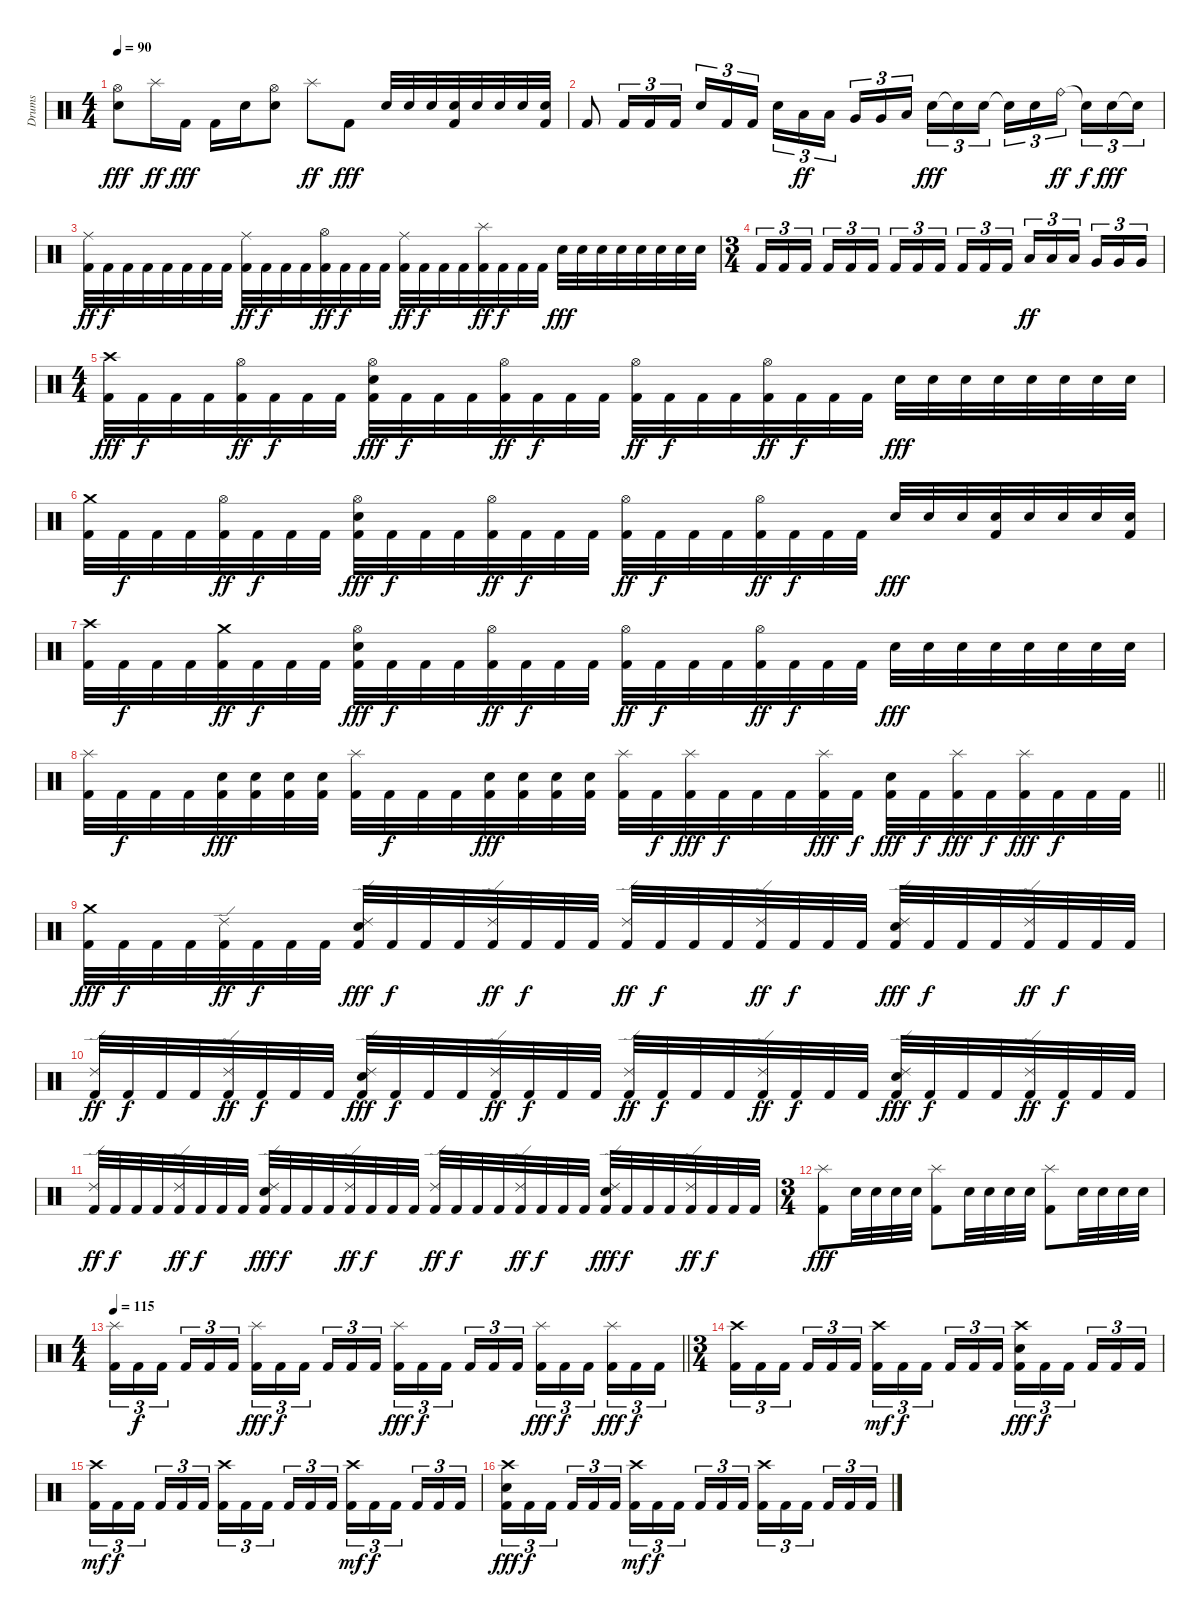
\track ("Drums" "Drums") {instrument percussion}
\staff {score}
\articulation defaults
\ts (4 4)
\tempo 90
\clef neutral
\ks c
("Hi-Hat (open)" "Snare (hit) 2").8{dy fff} "Splash (hit)".16{dy ff} "Kick (hit) 2".16{dy fff} "Kick (hit) 2".16 "Snare (hit) 2".16 ("Hi-Hat (open)" "Snare (hit) 2").8 "Splash (hit)".8{dy ff} "Kick (hit) 2".8{dy fff} "Snare (hit) 2".32 "Snare (hit) 2".32 "Snare (hit) 2".32 ("Snare (hit) 2" "Kick (hit) 2").32 "Snare (hit) 2".32 "Snare (hit) 2".32 "Snare (hit) 2".32 ("Snare (hit) 2" "Kick (hit) 2").32 |
"Kick (hit) 2".8 "Kick (hit) 2".16{tu (3 2)} "Kick (hit) 2".16{tu (3 2)} "Kick (hit) 2".16{tu (3 2)} "Snare (hit) 2".16{tu (3 2)} "Kick (hit) 2".16{tu (3 2)} "Kick (hit) 2".16{tu (3 2) beam splitsecondary} "Snare (hit) 2".16{tu (3 2)} "Low Tom (hit)".16{tu (3 2) dy ff} "Low Tom (hit)".16{tu (3 2)} "Very Low Tom (hit)".16{tu (3 2)} "Very Low Tom (hit)".16{tu (3 2)} "Low Floor Tom (hit)".16{tu (3 2) beam splitsecondary} "Snare (hit) 2".16{tu (3 2) dy fff} "Snare (hit)"{t}.16{tu (3 2)} "Snare (hit) 2".16{tu (3 2)} "Snare (hit)"{t}.16{tu (3 2)} "Snare (hit) 2".16{tu (3 2)} "Ride (bell)".16{tu (3 2) dy ff beam splitsecondary} "Snare (hit)"{t}.16{tu (3 2) dy f} "Snare (hit) 2".16{tu (3 2) dy fff} "Snare (hit)"{t}.16{tu (3 2)} |
("Ride (middle)" "Kick (hit) 2").32{dy ff} "Kick (hit) 2".32{dy f} "Kick (hit) 2".32 "Kick (hit) 2".32 "Kick (hit) 2".32 "Kick (hit) 2".32 "Kick (hit) 2".32 "Kick (hit) 2".32 ("Ride (middle)" "Kick (hit) 2").32{dy ff} "Kick (hit) 2".32{dy f} "Kick (hit) 2".32 "Kick (hit) 2".32 ("Hi-Hat (open)" "Kick (hit) 2").32{dy ff} "Kick (hit) 2".32{dy f} "Kick (hit) 2".32 "Kick (hit) 2".32 ("Ride (middle)" "Kick (hit) 2").32{dy ff} "Kick (hit) 2".32{dy f} "Kick (hit) 2".32 "Kick (hit) 2".32 ("Splash (hit)" "Kick (hit) 2").32{dy ff} "Kick (hit) 2".32{dy f} "Kick (hit) 2".32 "Kick (hit) 2".32 "Snare (hit) 2".32{dy fff} "Snare (hit) 2".32 "Snare (hit) 2".32 "Snare (hit) 2".32 "Snare (hit) 2".32 "Snare (hit) 2".32 "Snare (hit) 2".32 "Snare (hit) 2".32 |
\ts (3 4)
"Kick (hit) 2".16{tu (3 2)} "Kick (hit) 2".16{tu (3 2)} "Kick (hit) 2".16{tu (3 2) beam splitsecondary} "Kick (hit) 2".16{tu (3 2)} "Kick (hit) 2".16{tu (3 2)} "Kick (hit) 2".16{tu (3 2)} "Kick (hit) 2".16{tu (3 2)} "Kick (hit) 2".16{tu (3 2)} "Kick (hit) 2".16{tu (3 2) beam splitsecondary} "Kick (hit) 2".16{tu (3 2)} "Kick (hit) 2".16{tu (3 2)} "Kick (hit) 2".16{tu (3 2)} "Low Floor Tom (hit)".16{tu (3 2) dy ff} "Low Floor Tom (hit)".16{tu (3 2)} "Low Floor Tom (hit)".16{tu (3 2) beam splitsecondary} "Very Low Tom (hit)".16{tu (3 2)} "Very Low Tom (hit)".16{tu (3 2)} "Very Low Tom (hit)".16{tu (3 2)} |
\ts (4 4)
("Crash high (hit)" "Kick (hit) 2").32{dy fff} "Kick (hit) 2".32{dy f} "Kick (hit) 2".32 "Kick (hit) 2".32 ("Hi-Hat (open)" "Kick (hit) 2").32{dy ff} "Kick (hit) 2".32{dy f} "Kick (hit) 2".32 "Kick (hit) 2".32 ("Hi-Hat (open)" "Snare (hit) 2" "Kick (hit) 2").32{dy fff} "Kick (hit) 2".32{dy f} "Kick (hit) 2".32 "Kick (hit) 2".32 ("Hi-Hat (open)" "Kick (hit) 2").32{dy ff} "Kick (hit) 2".32{dy f} "Kick (hit) 2".32 "Kick (hit) 2".32 ("Hi-Hat (open)" "Kick (hit) 2").32{dy ff} "Kick (hit) 2".32{dy f} "Kick (hit) 2".32 "Kick (hit) 2".32 ("Hi-Hat (open)" "Kick (hit) 2").32{dy ff} "Kick (hit) 2".32{dy f} "Kick (hit) 2".32 "Kick (hit) 2".32 "Snare (hit) 2".32{dy fff} "Snare (hit) 2".32 "Snare (hit) 2".32 "Snare (hit) 2".32 "Snare (hit) 2".32 "Snare (hit) 2".32 "Snare (hit) 2".32 "Snare (hit) 2".32 |
("Crash medium (hit)" "Kick (hit) 2").32 "Kick (hit) 2".32{dy f} "Kick (hit) 2".32 "Kick (hit) 2".32 ("Hi-Hat (open)" "Kick (hit) 2").32{dy ff} "Kick (hit) 2".32{dy f} "Kick (hit) 2".32 "Kick (hit) 2".32 ("Hi-Hat (open)" "Snare (hit) 2" "Kick (hit) 2").32{dy fff} "Kick (hit) 2".32{dy f} "Kick (hit) 2".32 "Kick (hit) 2".32 ("Hi-Hat (open)" "Kick (hit) 2").32{dy ff} "Kick (hit) 2".32{dy f} "Kick (hit) 2".32 "Kick (hit) 2".32 ("Hi-Hat (open)" "Kick (hit) 2").32{dy ff} "Kick (hit) 2".32{dy f} "Kick (hit) 2".32 "Kick (hit) 2".32 ("Hi-Hat (open)" "Kick (hit) 2").32{dy ff} "Kick (hit) 2".32{dy f} "Kick (hit) 2".32 "Kick (hit) 2".32 "Snare (hit) 2".32{dy fff} "Snare (hit) 2".32 "Snare (hit) 2".32 ("Snare (hit) 2" "Kick (hit) 2").32 "Snare (hit) 2".32 "Snare (hit) 2".32 "Snare (hit) 2".32 ("Snare (hit) 2" "Kick (hit) 2").32 |
("Crash high (hit)" "Kick (hit) 2").32 "Kick (hit) 2".32{dy f} "Kick (hit) 2".32 "Kick (hit) 2".32 ("Crash medium (hit)" "Kick (hit) 2").32{dy ff} "Kick (hit) 2".32{dy f} "Kick (hit) 2".32 "Kick (hit) 2".32 ("Hi-Hat (open)" "Snare (hit) 2" "Kick (hit) 2").32{dy fff} "Kick (hit) 2".32{dy f} "Kick (hit) 2".32 "Kick (hit) 2".32 ("Hi-Hat (open)" "Kick (hit) 2").32{dy ff} "Kick (hit) 2".32{dy f} "Kick (hit) 2".32 "Kick (hit) 2".32 ("Hi-Hat (open)" "Kick (hit) 2").32{dy ff} "Kick (hit) 2".32{dy f} "Kick (hit) 2".32 "Kick (hit) 2".32 ("Hi-Hat (open)" "Kick (hit) 2").32{dy ff} "Kick (hit) 2".32{dy f} "Kick (hit) 2".32 "Kick (hit) 2".32 "Snare (hit) 2".32{dy fff} "Snare (hit) 2".32 "Snare (hit) 2".32 "Snare (hit) 2".32 "Snare (hit) 2".32 "Snare (hit) 2".32 "Snare (hit) 2".32 "Snare (hit) 2".32 |
\barLineRight lightlight
("Splash (hit)" "Kick (hit) 2").32 "Kick (hit) 2".32{dy f} "Kick (hit) 2".32 "Kick (hit) 2".32 ("Snare (hit) 2" "Kick (hit) 2").32{dy fff} ("Snare (hit) 2" "Kick (hit) 2").32 ("Snare (hit) 2" "Kick (hit) 2").32 ("Snare (hit) 2" "Kick (hit) 2").32 ("Splash (hit)" "Kick (hit) 2").32 "Kick (hit) 2".32{dy f} "Kick (hit) 2".32 "Kick (hit) 2".32 ("Snare (hit) 2" "Kick (hit) 2").32{dy fff} ("Snare (hit) 2" "Kick (hit) 2").32 ("Snare (hit) 2" "Kick (hit) 2").32 ("Snare (hit) 2" "Kick (hit) 2").32 ("Splash (hit)" "Kick (hit) 2").32 "Kick (hit) 2".32{dy f} ("Splash (hit)" "Kick (hit) 2").32{dy fff} "Kick (hit) 2".32{dy f} "Kick (hit) 2".32 "Kick (hit) 2".32 ("Splash (hit)" "Kick (hit) 2").32{dy fff} "Kick (hit) 2".32{dy f} ("Snare (hit) 2" "Kick (hit) 2").32{dy fff} "Kick (hit) 2".32{dy f} ("Splash (hit)" "Kick (hit) 2").32{dy fff} "Kick (hit) 2".32{dy f} ("Splash (hit)" "Kick (hit) 2").32{dy fff} "Kick (hit) 2".32{dy f} "Kick (hit) 2".32 "Kick (hit) 2".32 |
("Crash medium (hit)" "Kick (hit) 2").32{dy fff} "Kick (hit) 2".32{dy f} "Kick (hit) 2".32 "Kick (hit) 2".32 ("Ride (edge) 2" "Kick (hit) 2").32{dy ff} "Kick (hit) 2".32{dy f} "Kick (hit) 2".32 "Kick (hit) 2".32 ("Ride (edge) 2" "Snare (hit) 2" "Kick (hit) 2").32{dy fff} "Kick (hit) 2".32{dy f} "Kick (hit) 2".32 "Kick (hit) 2".32 ("Ride (edge) 2" "Kick (hit) 2").32{dy ff} "Kick (hit) 2".32{dy f} "Kick (hit) 2".32 "Kick (hit) 2".32 ("Ride (edge) 2" "Kick (hit) 2").32{dy ff} "Kick (hit) 2".32{dy f} "Kick (hit) 2".32 "Kick (hit) 2".32 ("Ride (edge) 2" "Kick (hit) 2").32{dy ff} "Kick (hit) 2".32{dy f} "Kick (hit) 2".32 "Kick (hit) 2".32 ("Ride (edge) 2" "Snare (hit) 2" "Kick (hit) 2").32{dy fff} "Kick (hit) 2".32{dy f} "Kick (hit) 2".32 "Kick (hit) 2".32 ("Ride (edge) 2" "Kick (hit) 2").32{dy ff} "Kick (hit) 2".32{dy f} "Kick (hit) 2".32 "Kick (hit) 2".32 |
("Ride (edge) 2" "Kick (hit) 2").32{dy ff} "Kick (hit) 2".32{dy f} "Kick (hit) 2".32 "Kick (hit) 2".32 ("Ride (edge) 2" "Kick (hit) 2").32{dy ff} "Kick (hit) 2".32{dy f} "Kick (hit) 2".32 "Kick (hit) 2".32 ("Ride (edge) 2" "Snare (hit) 2" "Kick (hit) 2").32{dy fff} "Kick (hit) 2".32{dy f} "Kick (hit) 2".32 "Kick (hit) 2".32 ("Ride (edge) 2" "Kick (hit) 2").32{dy ff} "Kick (hit) 2".32{dy f} "Kick (hit) 2".32 "Kick (hit) 2".32 ("Ride (edge) 2" "Kick (hit) 2").32{dy ff} "Kick (hit) 2".32{dy f} "Kick (hit) 2".32 "Kick (hit) 2".32 ("Ride (edge) 2" "Kick (hit) 2").32{dy ff} "Kick (hit) 2".32{dy f} "Kick (hit) 2".32 "Kick (hit) 2".32 ("Ride (edge) 2" "Snare (hit) 2" "Kick (hit) 2").32{dy fff} "Kick (hit) 2".32{dy f} "Kick (hit) 2".32 "Kick (hit) 2".32 ("Ride (edge) 2" "Kick (hit) 2").32{dy ff} "Kick (hit) 2".32{dy f} "Kick (hit) 2".32 "Kick (hit) 2".32 |
("Ride (edge) 2" "Kick (hit) 2").32{dy ff} "Kick (hit) 2".32{dy f} "Kick (hit) 2".32 "Kick (hit) 2".32 ("Ride (edge) 2" "Kick (hit) 2").32{dy ff} "Kick (hit) 2".32{dy f} "Kick (hit) 2".32 "Kick (hit) 2".32 ("Ride (edge) 2" "Snare (hit) 2" "Kick (hit) 2").32{dy fff} "Kick (hit) 2".32{dy f} "Kick (hit) 2".32 "Kick (hit) 2".32 ("Ride (edge) 2" "Kick (hit) 2").32{dy ff} "Kick (hit) 2".32{dy f} "Kick (hit) 2".32 "Kick (hit) 2".32 ("Ride (edge) 2" "Kick (hit) 2").32{dy ff} "Kick (hit) 2".32{dy f} "Kick (hit) 2".32 "Kick (hit) 2".32 ("Ride (edge) 2" "Kick (hit) 2").32{dy ff} "Kick (hit) 2".32{dy f} "Kick (hit) 2".32 "Kick (hit) 2".32 ("Ride (edge) 2" "Snare (hit) 2" "Kick (hit) 2").32{dy fff} "Kick (hit) 2".32{dy f} "Kick (hit) 2".32 "Kick (hit) 2".32 ("Ride (edge) 2" "Kick (hit) 2").32{dy ff} "Kick (hit) 2".32{dy f} "Kick (hit) 2".32 "Kick (hit) 2".32 |
\ts (3 4)
("Splash (hit)" "Kick (hit) 2").8{dy fff} "Snare (hit) 2".32 "Snare (hit) 2".32 "Snare (hit) 2".32 "Snare (hit) 2".32 ("Splash (hit)" "Kick (hit) 2").8 "Snare (hit) 2".32 "Snare (hit) 2".32 "Snare (hit) 2".32 "Snare (hit) 2".32 ("Splash (hit)" "Kick (hit) 2").8 "Snare (hit) 2".32 "Snare (hit) 2".32 "Snare (hit) 2".32 "Snare (hit) 2".32 |
\ts (4 4)
\tempo 115
\barLineRight lightlight
("Splash (hit)" "Kick (hit) 2").16{tu (3 2)} "Kick (hit) 2".16{tu (3 2) dy f} "Kick (hit) 2".16{tu (3 2) beam splitsecondary} "Kick (hit) 2".16{tu (3 2)} "Kick (hit) 2".16{tu (3 2)} "Kick (hit) 2".16{tu (3 2)} ("Splash (hit)" "Kick (hit) 2").16{tu (3 2) dy fff} "Kick (hit) 2".16{tu (3 2) dy f} "Kick (hit) 2".16{tu (3 2) beam splitsecondary} "Kick (hit) 2".16{tu (3 2)} "Kick (hit) 2".16{tu (3 2)} "Kick (hit) 2".16{tu (3 2)} ("Splash (hit)" "Kick (hit) 2").16{tu (3 2) dy fff} "Kick (hit) 2".16{tu (3 2) dy f} "Kick (hit) 2".16{tu (3 2) beam splitsecondary} "Kick (hit) 2".16{tu (3 2)} "Kick (hit) 2".16{tu (3 2)} "Kick (hit) 2".16{tu (3 2)} ("Splash (hit)" "Kick (hit) 2").16{tu (3 2) dy fff} "Kick (hit) 2".16{tu (3 2) dy f} "Kick (hit) 2".16{tu (3 2) beam splitsecondary} ("Splash (hit)" "Kick (hit) 2").16{tu (3 2) dy fff} "Kick (hit) 2".16{tu (3 2) dy f} "Kick (hit) 2".16{tu (3 2)} |
\ts (3 4)
\section ("" "")
("Crash high (hit)" "Kick (hit) 2").16{tu (3 2)} "Kick (hit) 2".16{tu (3 2)} "Kick (hit) 2".16{tu (3 2) beam splitsecondary} "Kick (hit) 2".16{tu (3 2)} "Kick (hit) 2".16{tu (3 2)} "Kick (hit) 2".16{tu (3 2)} ("Crash high (hit)" "Kick (hit) 2").16{tu (3 2) dy mf} "Kick (hit) 2".16{tu (3 2) dy f} "Kick (hit) 2".16{tu (3 2) beam splitsecondary} "Kick (hit) 2".16{tu (3 2)} "Kick (hit) 2".16{tu (3 2)} "Kick (hit) 2".16{tu (3 2)} ("Crash high (hit)" "Snare (hit) 2" "Kick (hit) 2").16{tu (3 2) dy fff} "Kick (hit) 2".16{tu (3 2) dy f} "Kick (hit) 2".16{tu (3 2) beam splitsecondary} "Kick (hit) 2".16{tu (3 2)} "Kick (hit) 2".16{tu (3 2)} "Kick (hit) 2".16{tu (3 2)} |
("Crash high (hit)" "Kick (hit) 2").16{tu (3 2) dy mf} "Kick (hit) 2".16{tu (3 2) dy f} "Kick (hit) 2".16{tu (3 2) beam splitsecondary} "Kick (hit) 2".16{tu (3 2)} "Kick (hit) 2".16{tu (3 2)} "Kick (hit) 2".16{tu (3 2)} ("Crash high (hit)" "Kick (hit) 2").16{tu (3 2)} "Kick (hit) 2".16{tu (3 2)} "Kick (hit) 2".16{tu (3 2) beam splitsecondary} "Kick (hit) 2".16{tu (3 2)} "Kick (hit) 2".16{tu (3 2)} "Kick (hit) 2".16{tu (3 2)} ("Crash high (hit)" "Kick (hit) 2").16{tu (3 2) dy mf} "Kick (hit) 2".16{tu (3 2) dy f} "Kick (hit) 2".16{tu (3 2) beam splitsecondary} "Kick (hit) 2".16{tu (3 2)} "Kick (hit) 2".16{tu (3 2)} "Kick (hit) 2".16{tu (3 2)} |
("Crash high (hit)" "Snare (hit) 2" "Kick (hit) 2").16{tu (3 2) dy fff} "Kick (hit) 2".16{tu (3 2) dy f} "Kick (hit) 2".16{tu (3 2) beam splitsecondary} "Kick (hit) 2".16{tu (3 2)} "Kick (hit) 2".16{tu (3 2)} "Kick (hit) 2".16{tu (3 2)} ("Crash high (hit)" "Kick (hit) 2").16{tu (3 2) dy mf} "Kick (hit) 2".16{tu (3 2) dy f} "Kick (hit) 2".16{tu (3 2) beam splitsecondary} "Kick (hit) 2".16{tu (3 2)} "Kick (hit) 2".16{tu (3 2)} "Kick (hit) 2".16{tu (3 2)} ("Crash high (hit)" "Kick (hit) 2").16{tu (3 2)} "Kick (hit) 2".16{tu (3 2)} "Kick (hit) 2".16{tu (3 2) beam splitsecondary} "Kick (hit) 2".16{tu (3 2)} "Kick (hit) 2".16{tu (3 2)} "Kick (hit) 2".16{tu (3 2)}
